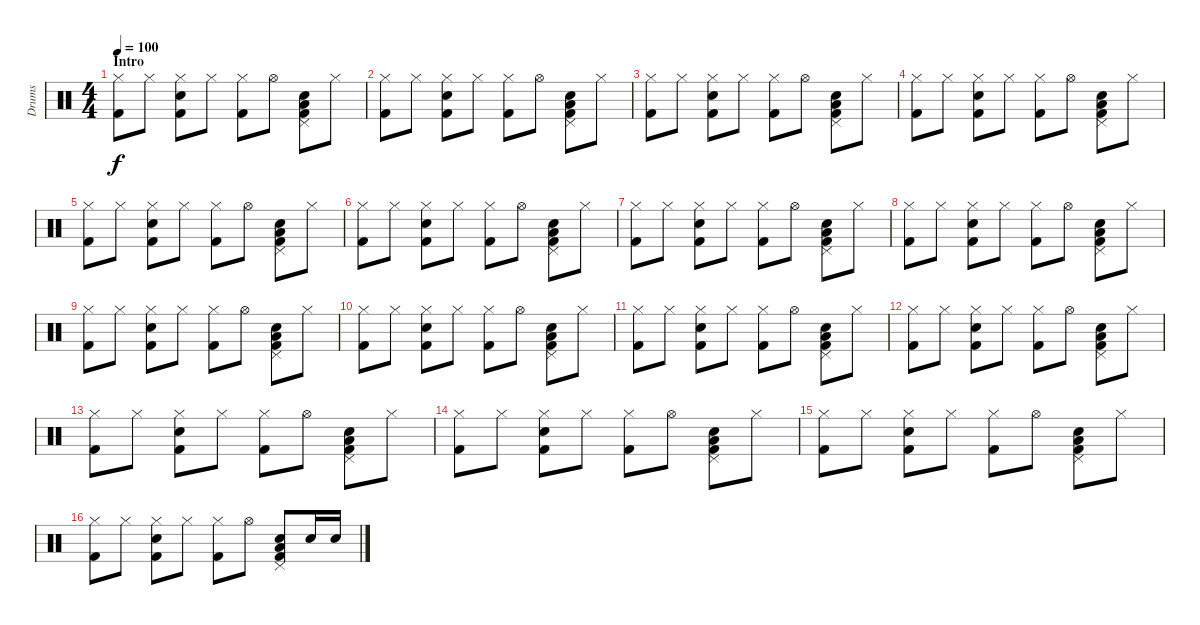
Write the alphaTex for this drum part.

\track ("Drums" "Drums") {instrument percussion}
\staff {score}
\articulation defaults
\ts (4 4)
\section ("" "Intro")
\tempo 100
\clef neutral
\ks c
("Kick (hit) 2" "Hi-Hat (closed)").8{dy f} "Hi-Hat (closed)".8 ("Kick (hit) 2" "Snare (hit) 2" "Hi-Hat (closed)").8 "Hi-Hat (closed)".8 ("Hi-Hat (closed)" "Kick (hit) 2").8 "Hi-Hat (open)".8 ("Kick (hit) 2" "Pedal Hi-Hat (hit)" "Snare (hit) 2" "Low Floor Tom (hit)").8 "Hi-Hat (closed)".8 |
("Kick (hit) 2" "Hi-Hat (closed)").8 "Hi-Hat (closed)".8 ("Kick (hit) 2" "Snare (hit) 2" "Hi-Hat (closed)").8 "Hi-Hat (closed)".8 ("Hi-Hat (closed)" "Kick (hit) 2").8 "Hi-Hat (open)".8 ("Kick (hit) 2" "Pedal Hi-Hat (hit)" "Snare (hit) 2" "Low Floor Tom (hit)").8 "Hi-Hat (closed)".8 |
("Kick (hit) 2" "Hi-Hat (closed)").8 "Hi-Hat (closed)".8 ("Kick (hit) 2" "Snare (hit) 2" "Hi-Hat (closed)").8 "Hi-Hat (closed)".8 ("Hi-Hat (closed)" "Kick (hit) 2").8 "Hi-Hat (open)".8 ("Kick (hit) 2" "Pedal Hi-Hat (hit)" "Snare (hit) 2" "Low Floor Tom (hit)").8 "Hi-Hat (closed)".8 |
("Kick (hit) 2" "Hi-Hat (closed)").8 "Hi-Hat (closed)".8 ("Kick (hit) 2" "Snare (hit) 2" "Hi-Hat (closed)").8 "Hi-Hat (closed)".8 ("Hi-Hat (closed)" "Kick (hit) 2").8 "Hi-Hat (open)".8 ("Kick (hit) 2" "Pedal Hi-Hat (hit)" "Snare (hit) 2" "Low Floor Tom (hit)").8 "Hi-Hat (closed)".8 |
("Kick (hit) 2" "Hi-Hat (closed)").8 "Hi-Hat (closed)".8 ("Kick (hit) 2" "Snare (hit) 2" "Hi-Hat (closed)").8 "Hi-Hat (closed)".8 ("Hi-Hat (closed)" "Kick (hit) 2").8 "Hi-Hat (open)".8 ("Kick (hit) 2" "Pedal Hi-Hat (hit)" "Snare (hit) 2" "Low Floor Tom (hit)").8 "Hi-Hat (closed)".8 |
("Kick (hit) 2" "Hi-Hat (closed)").8 "Hi-Hat (closed)".8 ("Kick (hit) 2" "Snare (hit) 2" "Hi-Hat (closed)").8 "Hi-Hat (closed)".8 ("Hi-Hat (closed)" "Kick (hit) 2").8 "Hi-Hat (open)".8 ("Kick (hit) 2" "Pedal Hi-Hat (hit)" "Snare (hit) 2" "Low Floor Tom (hit)").8 "Hi-Hat (closed)".8 |
("Kick (hit) 2" "Hi-Hat (closed)").8 "Hi-Hat (closed)".8 ("Kick (hit) 2" "Snare (hit) 2" "Hi-Hat (closed)").8 "Hi-Hat (closed)".8 ("Hi-Hat (closed)" "Kick (hit) 2").8 "Hi-Hat (open)".8 ("Kick (hit) 2" "Pedal Hi-Hat (hit)" "Snare (hit) 2" "Low Floor Tom (hit)").8 "Hi-Hat (closed)".8 |
("Kick (hit) 2" "Hi-Hat (closed)").8 "Hi-Hat (closed)".8 ("Kick (hit) 2" "Snare (hit) 2" "Hi-Hat (closed)").8 "Hi-Hat (closed)".8 ("Hi-Hat (closed)" "Kick (hit) 2").8 "Hi-Hat (open)".8 ("Kick (hit) 2" "Pedal Hi-Hat (hit)" "Snare (hit) 2" "Low Floor Tom (hit)").8 "Hi-Hat (closed)".8 |
("Kick (hit) 2" "Hi-Hat (closed)").8 "Hi-Hat (closed)".8 ("Kick (hit) 2" "Snare (hit) 2" "Hi-Hat (closed)").8 "Hi-Hat (closed)".8 ("Hi-Hat (closed)" "Kick (hit) 2").8 "Hi-Hat (open)".8 ("Kick (hit) 2" "Pedal Hi-Hat (hit)" "Snare (hit) 2" "Low Floor Tom (hit)").8 "Hi-Hat (closed)".8 |
("Kick (hit) 2" "Hi-Hat (closed)").8 "Hi-Hat (closed)".8 ("Kick (hit) 2" "Snare (hit) 2" "Hi-Hat (closed)").8 "Hi-Hat (closed)".8 ("Hi-Hat (closed)" "Kick (hit) 2").8 "Hi-Hat (open)".8 ("Kick (hit) 2" "Pedal Hi-Hat (hit)" "Snare (hit) 2" "Low Floor Tom (hit)").8 "Hi-Hat (closed)".8 |
("Kick (hit) 2" "Hi-Hat (closed)").8 "Hi-Hat (closed)".8 ("Kick (hit) 2" "Snare (hit) 2" "Hi-Hat (closed)").8 "Hi-Hat (closed)".8 ("Hi-Hat (closed)" "Kick (hit) 2").8 "Hi-Hat (open)".8 ("Kick (hit) 2" "Pedal Hi-Hat (hit)" "Snare (hit) 2" "Low Floor Tom (hit)").8 "Hi-Hat (closed)".8 |
("Kick (hit) 2" "Hi-Hat (closed)").8 "Hi-Hat (closed)".8 ("Kick (hit) 2" "Snare (hit) 2" "Hi-Hat (closed)").8 "Hi-Hat (closed)".8 ("Hi-Hat (closed)" "Kick (hit) 2").8 "Hi-Hat (open)".8 ("Kick (hit) 2" "Pedal Hi-Hat (hit)" "Snare (hit) 2" "Low Floor Tom (hit)").8 "Hi-Hat (closed)".8 |
("Kick (hit) 2" "Hi-Hat (closed)").8 "Hi-Hat (closed)".8 ("Kick (hit) 2" "Snare (hit) 2" "Hi-Hat (closed)").8 "Hi-Hat (closed)".8 ("Hi-Hat (closed)" "Kick (hit) 2").8 "Hi-Hat (open)".8 ("Kick (hit) 2" "Pedal Hi-Hat (hit)" "Snare (hit) 2" "Low Floor Tom (hit)").8 "Hi-Hat (closed)".8 |
("Kick (hit) 2" "Hi-Hat (closed)").8 "Hi-Hat (closed)".8 ("Kick (hit) 2" "Snare (hit) 2" "Hi-Hat (closed)").8 "Hi-Hat (closed)".8 ("Hi-Hat (closed)" "Kick (hit) 2").8 "Hi-Hat (open)".8 ("Kick (hit) 2" "Pedal Hi-Hat (hit)" "Snare (hit) 2" "Low Floor Tom (hit)").8 "Hi-Hat (closed)".8 |
("Kick (hit) 2" "Hi-Hat (closed)").8 "Hi-Hat (closed)".8 ("Kick (hit) 2" "Snare (hit) 2" "Hi-Hat (closed)").8 "Hi-Hat (closed)".8 ("Hi-Hat (closed)" "Kick (hit) 2").8 "Hi-Hat (open)".8 ("Kick (hit) 2" "Pedal Hi-Hat (hit)" "Snare (hit) 2" "Low Floor Tom (hit)").8 "Hi-Hat (closed)".8 |
("Kick (hit) 2" "Hi-Hat (closed)").8 "Hi-Hat (closed)".8 ("Kick (hit) 2" "Snare (hit) 2" "Hi-Hat (closed)").8 "Hi-Hat (closed)".8 ("Hi-Hat (closed)" "Kick (hit) 2").8 "Hi-Hat (open)".8 ("Kick (hit) 2" "Pedal Hi-Hat (hit)" "Snare (hit) 2" "Low Floor Tom (hit)").8 "Snare (hit) 2".16 "Snare (hit) 2".16
